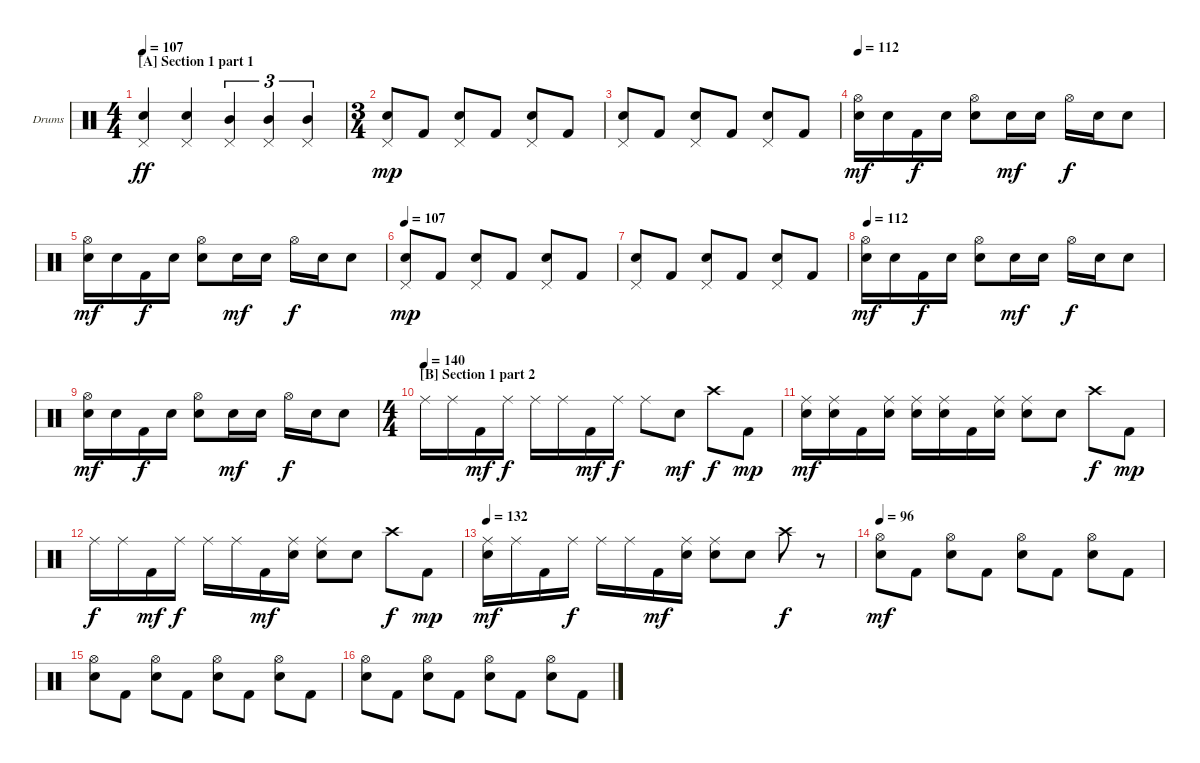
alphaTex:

\defaultSystemsLayout 4
\bracketExtendMode nobrackets
\firstSystemTrackNameOrientation horizontal
\otherSystemsTrackNameOrientation horizontal
\track ("Drums" "Drums") {instrument percussion}
\staff
\articulation defaults
\ts (4 4)
\section ("A" "Section 1 part 1")
\tempo 107
\clef neutral
\ks c
("Pedal Hi-Hat (hit)" "Snare (hit) 2").4{dy ff} ("Pedal Hi-Hat (hit)" "Snare (hit) 2").4 ("Mid Tom (hit)" "Pedal Hi-Hat (hit)").4{tu (3 2)} ("Pedal Hi-Hat (hit)" "Mid Tom (hit)").4{tu (3 2)} ("Pedal Hi-Hat (hit)" "Mid Tom (hit)").4{tu (3 2)} |
\ts (3 4)
\beaming (8 2 2 2)
("Snare (hit) 2" "Pedal Hi-Hat (hit)").8{dy mp} "Kick (hit) 2".8 ("Snare (hit) 2" "Pedal Hi-Hat (hit)").8 "Kick (hit) 2".8 ("Snare (hit) 2" "Pedal Hi-Hat (hit)").8 "Kick (hit) 2".8 |
("Snare (hit) 2" "Pedal Hi-Hat (hit)").8 "Kick (hit) 2".8 ("Snare (hit) 2" "Pedal Hi-Hat (hit)").8 "Kick (hit) 2".8 ("Snare (hit) 2" "Pedal Hi-Hat (hit)").8 "Kick (hit) 2".8 |
\tempo 112
("Snare (hit) 2" "Hi-Hat (open)").16{dy mf} "Snare (hit) 2".16 "Kick (hit) 2".16{dy f} "Snare (hit) 2".16 ("Snare (hit) 2" "Hi-Hat (open)").8 "Snare (hit) 2".16{dy mf} "Snare (hit) 2".16 "Hi-Hat (open)".16{dy f} "Snare (hit) 2".16 "Snare (hit) 2".8 |
("Snare (hit) 2" "Hi-Hat (open)").16{dy mf} "Snare (hit) 2".16 "Kick (hit) 2".16{dy f} "Snare (hit) 2".16 ("Snare (hit) 2" "Hi-Hat (open)").8 "Snare (hit) 2".16{dy mf} "Snare (hit) 2".16 "Hi-Hat (open)".16{dy f} "Snare (hit) 2".16 "Snare (hit) 2".8 |
\tempo 107
("Snare (hit) 2" "Pedal Hi-Hat (hit)").8{dy mp} "Kick (hit) 2".8 ("Snare (hit) 2" "Pedal Hi-Hat (hit)").8 "Kick (hit) 2".8 ("Snare (hit) 2" "Pedal Hi-Hat (hit)").8 "Kick (hit) 2".8 |
("Snare (hit) 2" "Pedal Hi-Hat (hit)").8 "Kick (hit) 2".8 ("Snare (hit) 2" "Pedal Hi-Hat (hit)").8 "Kick (hit) 2".8 ("Snare (hit) 2" "Pedal Hi-Hat (hit)").8 "Kick (hit) 2".8 |
\tempo (112 0.00625)
("Snare (hit) 2" "Hi-Hat (open)").16{dy mf} "Snare (hit) 2".16 "Kick (hit) 2".16{dy f} "Snare (hit) 2".16 ("Snare (hit) 2" "Hi-Hat (open)").8 "Snare (hit) 2".16{dy mf} "Snare (hit) 2".16 "Hi-Hat (open)".16{dy f} "Snare (hit) 2".16 "Snare (hit) 2".8 |
("Snare (hit) 2" "Hi-Hat (open)").16{dy mf} "Snare (hit) 2".16 "Kick (hit) 2".16{dy f} "Snare (hit) 2".16 ("Snare (hit) 2" "Hi-Hat (open)").8 "Snare (hit) 2".16{dy mf} "Snare (hit) 2".16 "Hi-Hat (open)".16{dy f} "Snare (hit) 2".16 "Snare (hit) 2".8 |
\ts (4 4)
\beaming (8 2 2 2 2)
\section ("B" "Section 1 part 2")
\tempo (140)
"Ride (middle)".16 "Ride (middle)".16 "Kick (hit) 2".16{dy mf} "Ride (middle)".16{dy f} "Ride (middle)".16 "Ride (middle)".16 "Kick (hit) 2".16{dy mf} "Ride (middle)".16{dy f} "Ride (middle)".8 "Snare (hit) 2".8{dy mf} "Crash high (hit)".8{dy f} "Kick (hit) 2".8{dy mp} |
("Ride (middle)" "Snare (hit) 2").16{dy mf} ("Ride (middle)" "Snare (hit) 2").16 "Kick (hit) 2".16 ("Ride (middle)" "Snare (hit) 2").16 ("Ride (middle)" "Snare (hit) 2").16 ("Ride (middle)" "Snare (hit) 2").16 "Kick (hit) 2".16 ("Ride (middle)" "Snare (hit) 2").16 ("Ride (middle)" "Snare (hit) 2").8 "Snare (hit) 2".8 "Crash high (hit)".8{dy f} "Kick (hit) 2".8{dy mp} |
"Ride (middle)".16{dy f} "Ride (middle)".16 "Kick (hit) 2".16{dy mf} "Ride (middle)".16{dy f} "Ride (middle)".16 "Ride (middle)".16 "Kick (hit) 2".16{dy mf} ("Ride (middle)" "Snare (hit) 2").16 ("Ride (middle)" "Snare (hit) 2").8 "Snare (hit) 2".8 "Crash high (hit)".8{dy f} "Kick (hit) 2".8{dy mp} |
\tempo 132
("Ride (middle)" "Snare (hit) 2").16{dy mf} "Ride (middle)".16 "Kick (hit) 2".16 "Ride (middle)".16{dy f} "Ride (middle)".16 "Ride (middle)".16 "Kick (hit) 2".16{dy mf} ("Ride (middle)" "Snare (hit) 2").16 ("Ride (middle)" "Snare (hit) 2").8 "Snare (hit) 2".8 "Crash high (hit)".8{dy f} r.8 |
\tempo 96
("Snare (hit) 2" "Hi-Hat (open)").8{dy mf} "Kick (hit) 2".8 ("Snare (hit) 2" "Hi-Hat (open)").8 "Kick (hit) 2".8 ("Snare (hit) 2" "Hi-Hat (open)").8 "Kick (hit) 2".8 ("Snare (hit) 2" "Hi-Hat (open)").8 "Kick (hit) 2".8 |
("Snare (hit) 2" "Hi-Hat (open)").8 "Kick (hit) 2".8 ("Snare (hit) 2" "Hi-Hat (open)").8 "Kick (hit) 2".8 ("Snare (hit) 2" "Hi-Hat (open)").8 "Kick (hit) 2".8 ("Snare (hit) 2" "Hi-Hat (open)").8 "Kick (hit) 2".8 |
("Snare (hit) 2" "Hi-Hat (open)").8 "Kick (hit) 2".8 ("Snare (hit) 2" "Hi-Hat (open)").8 "Kick (hit) 2".8 ("Snare (hit) 2" "Hi-Hat (open)").8 "Kick (hit) 2".8 ("Snare (hit) 2" "Hi-Hat (open)").8 "Kick (hit) 2".8
